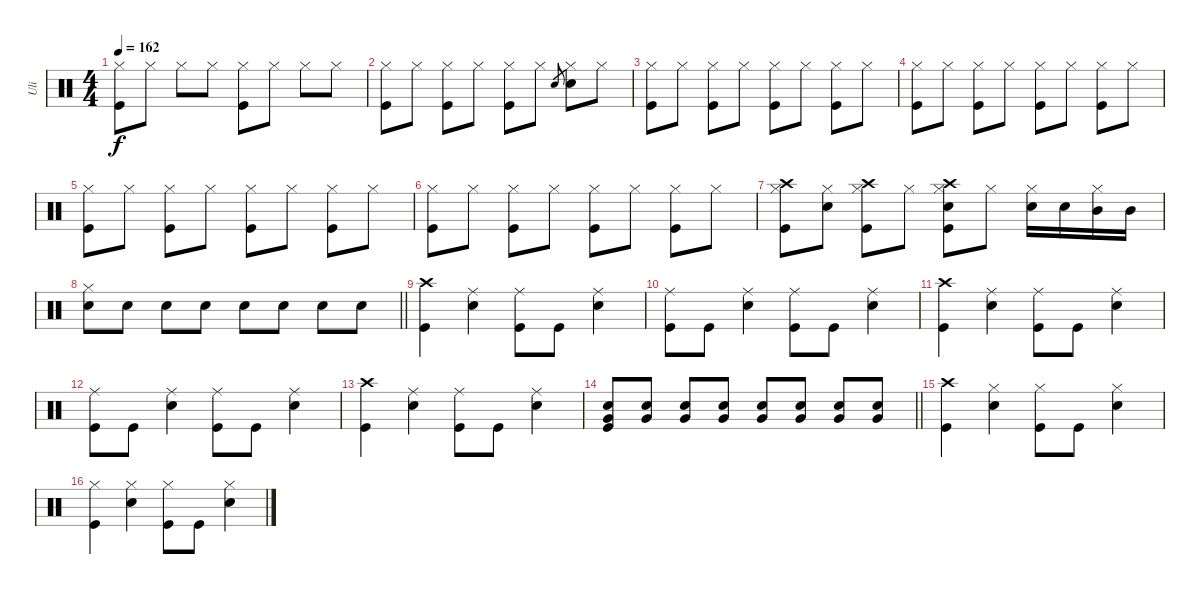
\track ("Uli" "Uli") {instrument percussion}
\staff {score}
\articulation defaults
\ts (4 4)
\tempo 162
\clef neutral
\ks aminor
("Hi-Hat (closed)" "Kick (hit)").8{dy f} "Hi-Hat (closed)".8 "Hi-Hat (closed)".8 "Hi-Hat (closed)".8 ("Hi-Hat (closed)" "Kick (hit)").8 "Hi-Hat (closed)".8 "Hi-Hat (closed)".8 "Hi-Hat (closed)".8 |
("Hi-Hat (closed)" "Kick (hit)").8 "Hi-Hat (closed)".8 ("Hi-Hat (closed)" "Kick (hit)").8 "Hi-Hat (closed)".8 ("Hi-Hat (closed)" "Kick (hit)").8 "Hi-Hat (closed)".8 "Snare (hit) 2".8{gr} ("Hi-Hat (closed)" "Snare (hit) 2").8 "Hi-Hat (closed)".8 |
("Hi-Hat (closed)" "Kick (hit)").8 "Hi-Hat (closed)".8 ("Hi-Hat (closed)" "Kick (hit)").8 "Hi-Hat (closed)".8 ("Hi-Hat (closed)" "Kick (hit)").8 "Hi-Hat (closed)".8 ("Hi-Hat (closed)" "Kick (hit)").8 "Hi-Hat (closed)".8 |
("Hi-Hat (closed)" "Kick (hit)").8 "Hi-Hat (closed)".8 ("Hi-Hat (closed)" "Kick (hit)").8 "Hi-Hat (closed)".8 ("Hi-Hat (closed)" "Kick (hit)").8 "Hi-Hat (closed)".8 ("Hi-Hat (closed)" "Kick (hit)").8 "Hi-Hat (closed)".8 |
("Hi-Hat (closed)" "Kick (hit)").8 "Hi-Hat (closed)".8 ("Hi-Hat (closed)" "Kick (hit)").8 "Hi-Hat (closed)".8 ("Hi-Hat (closed)" "Kick (hit)").8 "Hi-Hat (closed)".8 ("Hi-Hat (closed)" "Kick (hit)").8 "Hi-Hat (closed)".8 |
("Hi-Hat (closed)" "Kick (hit)").8 "Hi-Hat (closed)".8 ("Hi-Hat (closed)" "Kick (hit)").8 "Hi-Hat (closed)".8 ("Hi-Hat (closed)" "Kick (hit)").8 "Hi-Hat (closed)".8 ("Hi-Hat (closed)" "Kick (hit)").8 "Hi-Hat (closed)".8 |
("Crash high (hit)" "Hi-Hat (closed)" "Kick (hit)").8 ("Hi-Hat (closed)" "Snare (hit) 2").8 ("Crash high (hit)" "Hi-Hat (closed)" "Kick (hit)").8 "Hi-Hat (closed)".8 ("Crash high (hit)" "Hi-Hat (closed)" "Snare (hit) 2" "Kick (hit)").8 "Hi-Hat (closed)".8 ("Hi-Hat (closed)" "Snare (hit) 2").16 "Snare (hit) 2".16 ("Hi-Hat (closed)" "Mid Tom (hit)").16 "Mid Tom (hit)".16 |
\barLineRight lightlight
("Hi-Hat (closed)" "Snare (hit) 2").8 "Snare (hit) 2".8 "Snare (hit) 2".8 "Snare (hit) 2".8 "Snare (hit) 2".8 "Snare (hit) 2".8 "Snare (hit) 2".8 "Snare (hit) 2".8 |
("Crash high (hit)" "Kick (hit)").4 ("Ride (middle)" "Snare (hit) 2").4 ("Ride (middle)" "Kick (hit)").8 "Kick (hit)".8 ("Ride (middle)" "Snare (hit) 2").4 |
("Ride (middle)" "Kick (hit)").8 "Kick (hit)".8 ("Ride (middle)" "Snare (hit) 2").4 ("Ride (middle)" "Kick (hit)").8 "Kick (hit)".8 ("Ride (middle)" "Snare (hit) 2").4 |
("Crash high (hit)" "Kick (hit)").4 ("Ride (middle)" "Snare (hit) 2").4 ("Ride (middle)" "Kick (hit)").8 "Kick (hit)".8 ("Ride (middle)" "Snare (hit) 2").4 |
("Ride (middle)" "Kick (hit)").8 "Kick (hit)".8 ("Ride (middle)" "Snare (hit) 2").4 ("Ride (middle)" "Kick (hit)").8 "Kick (hit)".8 ("Ride (middle)" "Snare (hit) 2").4 |
("Crash high (hit)" "Kick (hit)").4 ("Ride (middle)" "Snare (hit) 2").4 ("Ride (middle)" "Kick (hit)").8 "Kick (hit)".8 ("Ride (middle)" "Snare (hit) 2").4 |
\barLineRight lightlight
("Snare (hit) 2" "Very Low Tom (hit)" "Kick (hit)").8 ("Snare (hit) 2" "Very Low Tom (hit)").8 ("Snare (hit) 2" "Very Low Tom (hit)").8 ("Snare (hit) 2" "Very Low Tom (hit)").8 ("Snare (hit) 2" "Very Low Tom (hit)").8 ("Snare (hit) 2" "Very Low Tom (hit)").8 ("Snare (hit) 2" "Very Low Tom (hit)").8 ("Snare (hit) 2" "Very Low Tom (hit)").8 |
("Crash high (hit)" "Kick (hit)").4 ("Hi-Hat (closed)" "Snare (hit) 2").4 ("Hi-Hat (closed)" "Kick (hit)").8 "Kick (hit)".8 ("Hi-Hat (closed)" "Snare (hit) 2").4 |
("Hi-Hat (closed)" "Kick (hit)").4 ("Hi-Hat (closed)" "Snare (hit) 2").4 ("Hi-Hat (closed)" "Kick (hit)").8 "Kick (hit)".8 ("Hi-Hat (closed)" "Snare (hit) 2").4
